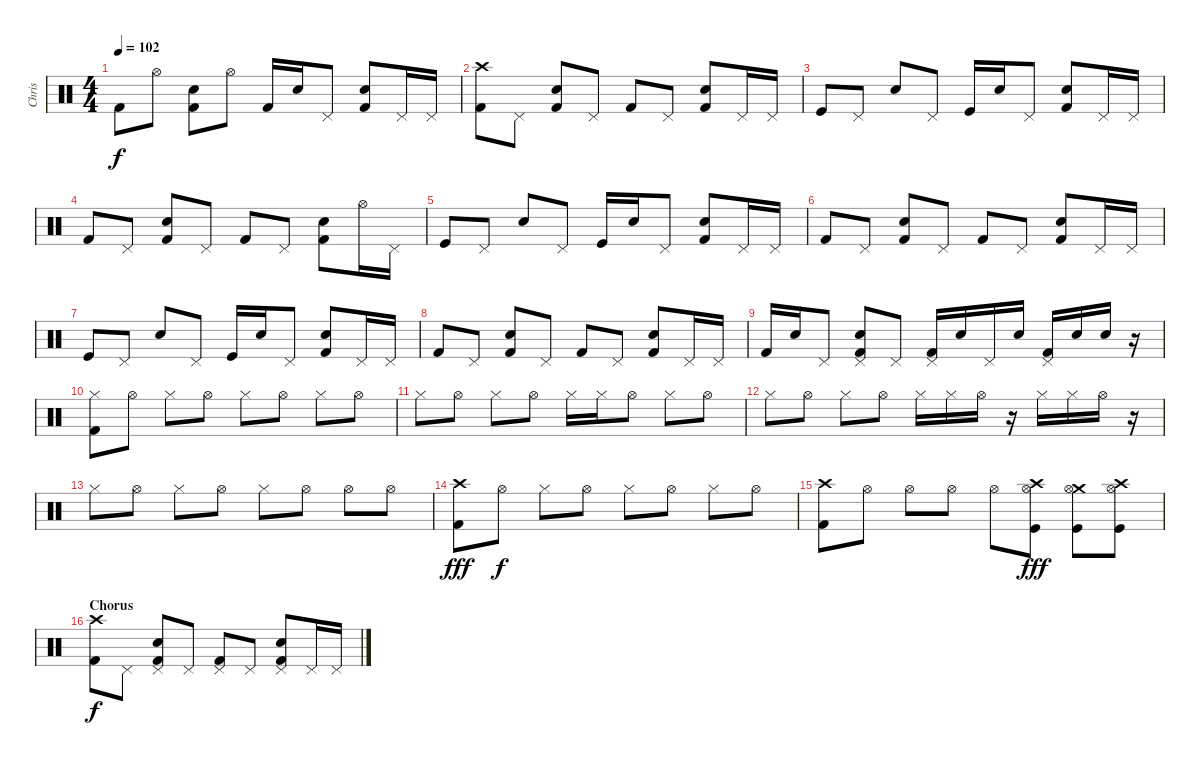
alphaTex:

\track ("Chris" "Chris") {instrument percussion}
\staff {score}
\articulation defaults
\ts (4 4)
\tempo 102
\clef neutral
\ks c "Kick (hit) 2".8{dy f} "Hi-Hat (open)".8
("Snare (hit) 2" "Kick (hit) 2").8 "Hi-Hat (open)".8 "Kick (hit) 2".16 "Snare (hit) 2".16 "Pedal Hi-Hat (hit)".8 ("Snare (hit) 2" "Kick (hit) 2").8 "Pedal Hi-Hat (hit)".16 "Pedal Hi-Hat (hit)".16 |
("Crash high (hit)" "Kick (hit) 2").8 "Pedal Hi-Hat (hit)".8 ("Snare (hit) 2" "Kick (hit) 2").8 "Pedal Hi-Hat (hit)".8 "Kick (hit) 2".8 "Pedal Hi-Hat (hit)".8 ("Snare (hit) 2" "Kick (hit) 2").8 "Pedal Hi-Hat (hit)".16 "Pedal Hi-Hat (hit)".16 |
"Kick (hit)".8 "Pedal Hi-Hat (hit)".8 "Snare (hit) 2".8 "Pedal Hi-Hat (hit)".8 "Kick (hit)".16 "Snare (hit) 2".16 "Pedal Hi-Hat (hit)".8 ("Snare (hit) 2" "Kick (hit) 2").8 "Pedal Hi-Hat (hit)".16 "Pedal Hi-Hat (hit)".16 |
"Kick (hit) 2".8 "Pedal Hi-Hat (hit)".8 ("Snare (hit) 2" "Kick (hit) 2").8 "Pedal Hi-Hat (hit)".8 "Kick (hit) 2".8 "Pedal Hi-Hat (hit)".8 ("Snare (hit) 2" "Kick (hit) 2").8 "Hi-Hat (open)".16 "Pedal Hi-Hat (hit)".16 |
"Kick (hit)".8 "Pedal Hi-Hat (hit)".8 "Snare (hit) 2".8 "Pedal Hi-Hat (hit)".8 "Kick (hit)".16 "Snare (hit) 2".16 "Pedal Hi-Hat (hit)".8 ("Snare (hit) 2" "Kick (hit) 2").8 "Pedal Hi-Hat (hit)".16 "Pedal Hi-Hat (hit)".16 |
"Kick (hit) 2".8 "Pedal Hi-Hat (hit)".8 ("Snare (hit) 2" "Kick (hit) 2").8 "Pedal Hi-Hat (hit)".8 "Kick (hit) 2".8 "Pedal Hi-Hat (hit)".8 ("Snare (hit) 2" "Kick (hit) 2").8 "Pedal Hi-Hat (hit)".16 "Pedal Hi-Hat (hit)".16 |
"Kick (hit)".8 "Pedal Hi-Hat (hit)".8 "Snare (hit) 2".8 "Pedal Hi-Hat (hit)".8 "Kick (hit)".16 "Snare (hit) 2".16 "Pedal Hi-Hat (hit)".8 ("Snare (hit) 2" "Kick (hit) 2").8 "Pedal Hi-Hat (hit)".16 "Pedal Hi-Hat (hit)".16 |
"Kick (hit) 2".8 "Pedal Hi-Hat (hit)".8 ("Snare (hit) 2" "Kick (hit) 2").8 "Pedal Hi-Hat (hit)".8 "Kick (hit) 2".8 "Pedal Hi-Hat (hit)".8 ("Snare (hit) 2" "Kick (hit) 2").8 "Pedal Hi-Hat (hit)".16 "Pedal Hi-Hat (hit)".16 |
"Kick (hit) 2".16 "Snare (hit) 2".16 "Pedal Hi-Hat (hit)".8 ("Pedal Hi-Hat (hit)" "Snare (hit) 2" "Kick (hit) 2").8 "Pedal Hi-Hat (hit)".8 ("Pedal Hi-Hat (hit)" "Kick (hit) 2").16 "Snare (hit) 2".16 "Pedal Hi-Hat (hit)".16 "Snare (hit) 2".16 ("Pedal Hi-Hat (hit)" "Kick (hit) 2").16 "Snare (hit) 2".16 "Snare (hit) 2".16 r.16 |
("Hi-Hat (closed)" "Kick (hit) 2").8 "Hi-Hat (open)".8 "Hi-Hat (closed)".8 "Hi-Hat (open)".8 "Hi-Hat (closed)".8 "Hi-Hat (open)".8 "Hi-Hat (closed)".8 "Hi-Hat (open)".8 |
"Hi-Hat (closed)".8 "Hi-Hat (open)".8 "Hi-Hat (closed)".8 "Hi-Hat (open)".8 "Hi-Hat (closed)".16 "Hi-Hat (closed)".16 "Hi-Hat (open)".8 "Hi-Hat (closed)".8 "Hi-Hat (open)".8 |
"Hi-Hat (closed)".8 "Hi-Hat (open)".8 "Hi-Hat (closed)".8 "Hi-Hat (open)".8 "Hi-Hat (closed)".16 "Hi-Hat (closed)".16 "Hi-Hat (open)".16 r.16 "Hi-Hat (closed)".16 "Hi-Hat (closed)".16 "Hi-Hat (open)".16 r.16 |
"Hi-Hat (closed)".8 "Hi-Hat (open)".8 "Hi-Hat (closed)".8 "Hi-Hat (open)".8 "Hi-Hat (closed)".8 "Hi-Hat (open)".8 "Hi-Hat (open)".8 "Hi-Hat (open)".8 |
("Crash high (hit)" "Kick (hit) 2").8{dy fff} "Hi-Hat (open)".8{dy f} "Hi-Hat (closed)".8 "Hi-Hat (open)".8 "Hi-Hat (closed)".8 "Hi-Hat (open)".8 "Hi-Hat (closed)".8 "Hi-Hat (open)".8 |
("Crash high (hit)" "Kick (hit) 2").8 "Hi-Hat (open)".8 "Hi-Hat (open)".8 "Hi-Hat (open)".8 "Hi-Hat (open)".8 ("Crash high (hit)" "Hi-Hat (open)" "Kick (hit)").8{dy fff} ("Crash medium (hit)" "Hi-Hat (open)" "Kick (hit)").8 ("Crash high (hit)" "Hi-Hat (open)" "Kick (hit)").8 |
\section ("" "Chorus")
("Crash high (hit)" "Kick (hit) 2").8{dy f} "Pedal Hi-Hat (hit)".8 ("Pedal Hi-Hat (hit)" "Snare (hit) 2" "Kick (hit) 2").8 "Pedal Hi-Hat (hit)".8 ("Pedal Hi-Hat (hit)" "Kick (hit) 2").8 "Pedal Hi-Hat (hit)".8 ("Pedal Hi-Hat (hit)" "Snare (hit) 2" "Kick (hit) 2").8 "Pedal Hi-Hat (hit)".16 "Pedal Hi-Hat (hit)".16
